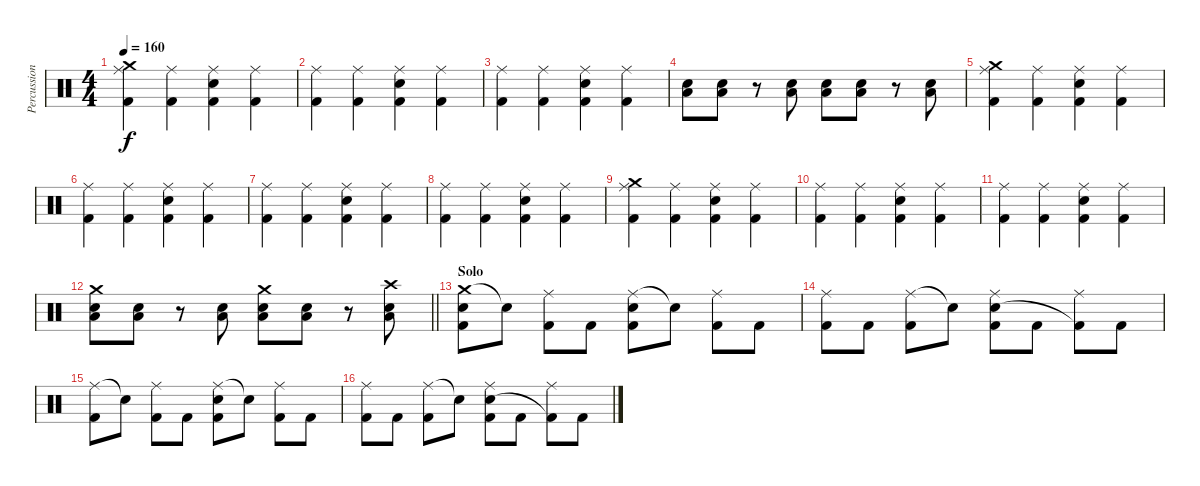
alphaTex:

\track ("Percussion" "Percussion") {instrument percussion}
\staff {score}
\articulation defaults
\ts (4 4)
\tempo 160
\clef neutral
\ks c
("Ride (middle)" "Crash medium (hit)" "Kick (hit) 2").4{dy f} ("Ride (middle)" "Kick (hit) 2").4 ("Ride (middle)" "Snare (hit) 2" "Kick (hit) 2").4 ("Ride (middle)" "Kick (hit) 2").4 |
("Ride (middle)" "Kick (hit) 2").4 ("Ride (middle)" "Kick (hit) 2").4 ("Ride (middle)" "Snare (hit) 2" "Kick (hit) 2").4 ("Ride (middle)" "Kick (hit) 2").4 |
("Ride (middle)" "Kick (hit) 2").4 ("Ride (middle)" "Kick (hit) 2").4 ("Ride (middle)" "Snare (hit) 2" "Kick (hit) 2").4 ("Ride (middle)" "Kick (hit) 2").4 |
("Low Floor Tom (hit)" "Snare (hit) 2").8 ("Low Floor Tom (hit)" "Snare (hit) 2").8 r.8 ("Low Floor Tom (hit)" "Snare (hit) 2").8 ("Low Floor Tom (hit)" "Snare (hit) 2").8 ("Low Floor Tom (hit)" "Snare (hit) 2").8 r.8 ("Low Floor Tom (hit)" "Snare (hit) 2").8 |
("Ride (middle)" "Crash medium (hit)" "Kick (hit) 2").4 ("Ride (middle)" "Kick (hit) 2").4 ("Ride (middle)" "Snare (hit) 2" "Kick (hit) 2").4 ("Ride (middle)" "Kick (hit) 2").4 |
("Ride (middle)" "Kick (hit) 2").4 ("Ride (middle)" "Kick (hit) 2").4 ("Ride (middle)" "Snare (hit) 2" "Kick (hit) 2").4 ("Ride (middle)" "Kick (hit) 2").4 |
("Ride (middle)" "Kick (hit) 2").4 ("Ride (middle)" "Kick (hit) 2").4 ("Ride (middle)" "Snare (hit) 2" "Kick (hit) 2").4 ("Ride (middle)" "Kick (hit) 2").4 |
("Ride (middle)" "Kick (hit) 2").4 ("Ride (middle)" "Kick (hit) 2").4 ("Ride (middle)" "Snare (hit) 2" "Kick (hit) 2").4 ("Ride (middle)" "Kick (hit) 2").4 |
("Ride (middle)" "Crash medium (hit)" "Kick (hit) 2").4 ("Ride (middle)" "Kick (hit) 2").4 ("Ride (middle)" "Snare (hit) 2" "Kick (hit) 2").4 ("Ride (middle)" "Kick (hit) 2").4 |
("Ride (middle)" "Kick (hit) 2").4 ("Ride (middle)" "Kick (hit) 2").4 ("Ride (middle)" "Snare (hit) 2" "Kick (hit) 2").4 ("Ride (middle)" "Kick (hit) 2").4 |
("Ride (middle)" "Kick (hit) 2").4 ("Ride (middle)" "Kick (hit) 2").4 ("Ride (middle)" "Snare (hit) 2" "Kick (hit) 2").4 ("Ride (middle)" "Kick (hit) 2").4 |
\barLineRight lightlight
("Crash medium (hit)" "Low Floor Tom (hit)" "Snare (hit) 2").8 ("Low Floor Tom (hit)" "Snare (hit) 2").8 r.8 ("Low Floor Tom (hit)" "Snare (hit) 2").8 ("Crash medium (hit)" "Low Floor Tom (hit)" "Snare (hit) 2").8 ("Low Floor Tom (hit)" "Snare (hit) 2").8 r.8 ("Crash high (hit)" "Low Floor Tom (hit)" "Snare (hit) 2").8 |
\section ("" "Solo")
("Crash medium (hit)" "Snare (hit) 2" "Kick (hit) 2").8 "Snare (hit)"{t}.8 ("Ride (middle)" "Kick (hit) 2").8 "Kick (hit) 2".8 ("Ride (middle)" "Snare (hit) 2" "Kick (hit) 2").8 "Snare (hit)"{t}.8 ("Ride (middle)" "Kick (hit) 2").8 "Kick (hit) 2".8 |
("Ride (middle)" "Kick (hit) 2").8 "Kick (hit) 2".8 ("Ride (middle)" "Kick (hit) 2").8 "Snare (hit)"{t}.8 ("Ride (middle)" "Snare (hit) 2" "Kick (hit) 2").8 "Kick (hit) 2".8 ("Ride (middle)" "Kick (hit) 2"{t}).8 "Kick (hit) 2".8 |
("Ride (middle)" "Kick (hit) 2").8 "Snare (hit)"{t}.8 ("Ride (middle)" "Kick (hit) 2").8 "Kick (hit) 2".8 ("Ride (middle)" "Snare (hit) 2" "Kick (hit) 2").8 "Snare (hit)"{t}.8 ("Ride (middle)" "Kick (hit) 2").8 "Kick (hit) 2".8 |
("Ride (middle)" "Kick (hit) 2").8 "Kick (hit) 2".8 ("Ride (middle)" "Kick (hit) 2").8 "Snare (hit)"{t}.8 ("Ride (middle)" "Snare (hit) 2" "Kick (hit) 2").8 "Kick (hit) 2".8 ("Ride (middle)" "Kick (hit) 2"{t}).8 "Kick (hit) 2".8
